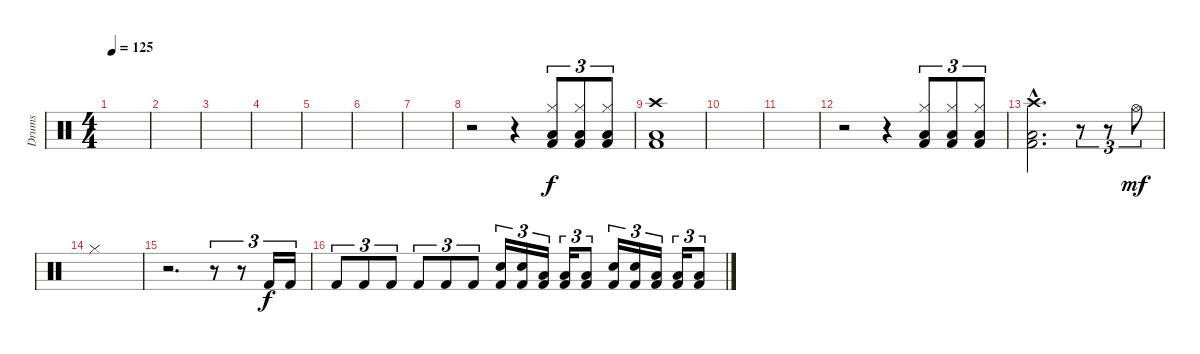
\track ("Drums" "Drums") {instrument percussion}
\staff {score}
\articulation defaults
\ts (4 4)
\tempo 125
\clef neutral
\ks c
|
|
|
|
|
|
|
r.2 r.4 ("Low Tom (hit)" "Hi-Hat (closed)" "Kick (hit) 2").8{tu (3 2)} ("Low Tom (hit)" "Hi-Hat (closed)" "Kick (hit) 2").8{tu (3 2)} ("Low Tom (hit)" "Hi-Hat (closed)" "Kick (hit) 2").8{tu (3 2)} |
("Low Floor Tom (hit)" "Crash high (hit)" "Kick (hit) 2").1 |
|
|
r.2 r.4 ("Low Tom (hit)" "Hi-Hat (closed)" "Kick (hit) 2").8{tu (3 2)} ("Low Tom (hit)" "Hi-Hat (closed)" "Kick (hit) 2").8{tu (3 2)} ("Low Tom (hit)" "Hi-Hat (closed)" "Kick (hit) 2").8{tu (3 2)} |
("Low Floor Tom (hit)"{hac} "Crash high (hit)"{hac} "Kick (hit) 2"{hac}).2{d} r.8{tu (3 2)} r.8{tu (3 2)} "Hi-Hat (open)".8{tu (3 2) dy mf} |
"Hi-Hat (closed)".1 |
r.2{d} r.8{tu (3 2)} r.8{tu (3 2)} "Kick (hit) 2".16{tu (3 2) dy f} "Kick (hit) 2".16{tu (3 2)} |
"Kick (hit) 2".8{tu (3 2)} "Kick (hit) 2".8{tu (3 2)} "Kick (hit) 2".8{tu (3 2)} "Kick (hit) 2".8{tu (3 2)} "Kick (hit) 2".8{tu (3 2)} "Kick (hit) 2".8{tu (3 2)} ("Snare (hit) 2" "Kick (hit) 2").16{tu (3 2)} ("Snare (hit) 2" "Kick (hit) 2").16{tu (3 2)} ("Low Tom (hit)" "Kick (hit) 2").16{tu (3 2)} ("Low Tom (hit)" "Kick (hit) 2").16{tu (3 2)} ("Low Tom (hit)" "Kick (hit) 2").8{tu (3 2)} ("Snare (hit) 2" "Kick (hit) 2").16{tu (3 2)} ("Snare (hit) 2" "Kick (hit) 2").16{tu (3 2)} ("Low Tom (hit)" "Kick (hit) 2").16{tu (3 2)} ("Low Tom (hit)" "Kick (hit) 2").16{tu (3 2)} ("Low Tom (hit)" "Kick (hit) 2").8{tu (3 2)}
